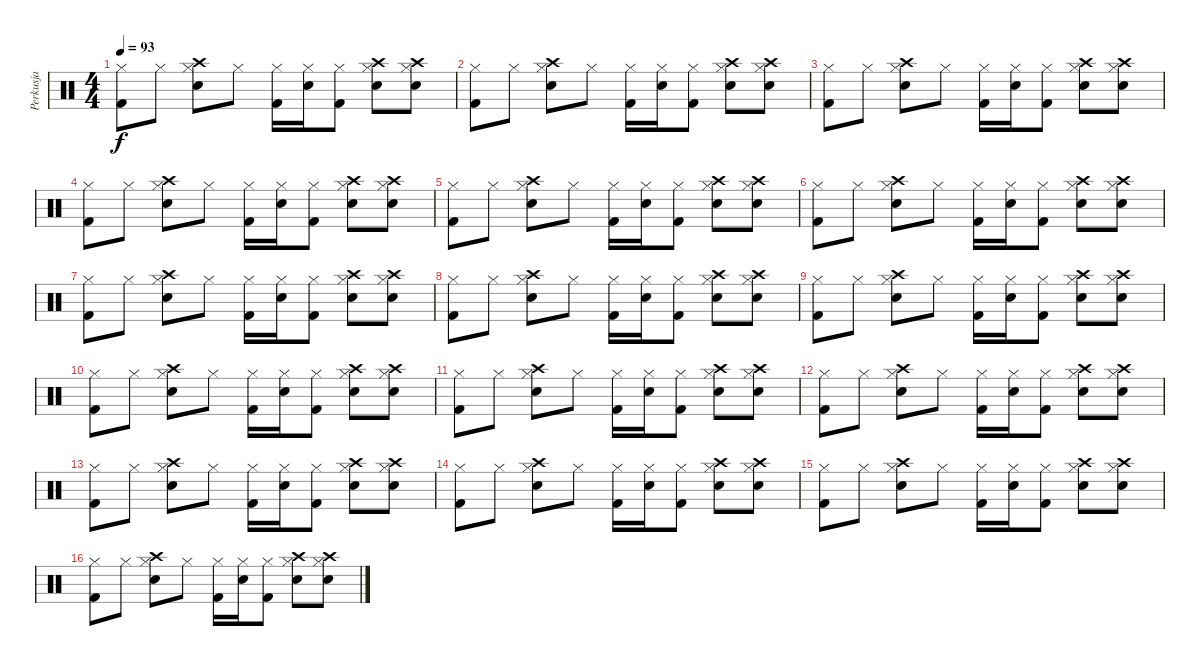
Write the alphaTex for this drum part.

\track ("Perkusja" "Perkusja") {instrument percussion}
\staff {score}
\articulation defaults
\ts (4 4)
\tempo 93
\clef neutral
\ks c
("Hi-Hat (closed)" "Kick (hit) 2").8{dy f} "Hi-Hat (closed)".8 ("Hi-Hat (closed)" "Electric Snare (hit)" "Crash high (hit)").8 "Hi-Hat (closed)".8 ("Hi-Hat (closed)" "Kick (hit) 2").16 ("Hi-Hat (closed)" "Electric Snare (hit)").16 ("Hi-Hat (closed)" "Kick (hit) 2").8 ("Hi-Hat (closed)" "Electric Snare (hit)" "Crash high (hit)").8 ("Hi-Hat (closed)" "Electric Snare (hit)" "Crash high (hit)").8 |
("Hi-Hat (closed)" "Kick (hit) 2").8 "Hi-Hat (closed)".8 ("Hi-Hat (closed)" "Electric Snare (hit)" "Crash high (hit)").8 "Hi-Hat (closed)".8 ("Hi-Hat (closed)" "Kick (hit) 2").16 ("Hi-Hat (closed)" "Electric Snare (hit)").16 ("Hi-Hat (closed)" "Kick (hit) 2").8 ("Hi-Hat (closed)" "Electric Snare (hit)" "Crash high (hit)").8 ("Hi-Hat (closed)" "Electric Snare (hit)" "Crash high (hit)").8 |
("Hi-Hat (closed)" "Kick (hit) 2").8 "Hi-Hat (closed)".8 ("Hi-Hat (closed)" "Electric Snare (hit)" "Crash high (hit)").8 "Hi-Hat (closed)".8 ("Hi-Hat (closed)" "Kick (hit) 2").16 ("Hi-Hat (closed)" "Electric Snare (hit)").16 ("Hi-Hat (closed)" "Kick (hit) 2").8 ("Hi-Hat (closed)" "Electric Snare (hit)" "Crash high (hit)").8 ("Hi-Hat (closed)" "Electric Snare (hit)" "Crash high (hit)").8 |
("Hi-Hat (closed)" "Kick (hit) 2").8 "Hi-Hat (closed)".8 ("Hi-Hat (closed)" "Electric Snare (hit)" "Crash high (hit)").8 "Hi-Hat (closed)".8 ("Hi-Hat (closed)" "Kick (hit) 2").16 ("Hi-Hat (closed)" "Electric Snare (hit)").16 ("Hi-Hat (closed)" "Kick (hit) 2").8 ("Hi-Hat (closed)" "Electric Snare (hit)" "Crash high (hit)").8 ("Hi-Hat (closed)" "Electric Snare (hit)" "Crash high (hit)").8 |
("Hi-Hat (closed)" "Kick (hit) 2").8 "Hi-Hat (closed)".8 ("Hi-Hat (closed)" "Electric Snare (hit)" "Crash high (hit)").8 "Hi-Hat (closed)".8 ("Hi-Hat (closed)" "Kick (hit) 2").16 ("Hi-Hat (closed)" "Electric Snare (hit)").16 ("Hi-Hat (closed)" "Kick (hit) 2").8 ("Hi-Hat (closed)" "Electric Snare (hit)" "Crash high (hit)").8 ("Hi-Hat (closed)" "Electric Snare (hit)" "Crash high (hit)").8 |
("Hi-Hat (closed)" "Kick (hit) 2").8 "Hi-Hat (closed)".8 ("Hi-Hat (closed)" "Electric Snare (hit)" "Crash high (hit)").8 "Hi-Hat (closed)".8 ("Hi-Hat (closed)" "Kick (hit) 2").16 ("Hi-Hat (closed)" "Electric Snare (hit)").16 ("Hi-Hat (closed)" "Kick (hit) 2").8 ("Hi-Hat (closed)" "Electric Snare (hit)" "Crash high (hit)").8 ("Hi-Hat (closed)" "Electric Snare (hit)" "Crash high (hit)").8 |
("Hi-Hat (closed)" "Kick (hit) 2").8 "Hi-Hat (closed)".8 ("Hi-Hat (closed)" "Electric Snare (hit)" "Crash high (hit)").8 "Hi-Hat (closed)".8 ("Hi-Hat (closed)" "Kick (hit) 2").16 ("Hi-Hat (closed)" "Electric Snare (hit)").16 ("Hi-Hat (closed)" "Kick (hit) 2").8 ("Hi-Hat (closed)" "Electric Snare (hit)" "Crash high (hit)").8 ("Hi-Hat (closed)" "Electric Snare (hit)" "Crash high (hit)").8 |
("Hi-Hat (closed)" "Kick (hit) 2").8 "Hi-Hat (closed)".8 ("Hi-Hat (closed)" "Electric Snare (hit)" "Crash high (hit)").8 "Hi-Hat (closed)".8 ("Hi-Hat (closed)" "Kick (hit) 2").16 ("Hi-Hat (closed)" "Electric Snare (hit)").16 ("Hi-Hat (closed)" "Kick (hit) 2").8 ("Hi-Hat (closed)" "Electric Snare (hit)" "Crash high (hit)").8 ("Hi-Hat (closed)" "Electric Snare (hit)" "Crash high (hit)").8 |
("Hi-Hat (closed)" "Kick (hit) 2").8 "Hi-Hat (closed)".8 ("Hi-Hat (closed)" "Electric Snare (hit)" "Crash high (hit)").8 "Hi-Hat (closed)".8 ("Hi-Hat (closed)" "Kick (hit) 2").16 ("Hi-Hat (closed)" "Electric Snare (hit)").16 ("Hi-Hat (closed)" "Kick (hit) 2").8 ("Hi-Hat (closed)" "Electric Snare (hit)" "Crash high (hit)").8 ("Hi-Hat (closed)" "Electric Snare (hit)" "Crash high (hit)").8 |
("Hi-Hat (closed)" "Kick (hit) 2").8 "Hi-Hat (closed)".8 ("Hi-Hat (closed)" "Electric Snare (hit)" "Crash high (hit)").8 "Hi-Hat (closed)".8 ("Hi-Hat (closed)" "Kick (hit) 2").16 ("Hi-Hat (closed)" "Electric Snare (hit)").16 ("Hi-Hat (closed)" "Kick (hit) 2").8 ("Hi-Hat (closed)" "Electric Snare (hit)" "Crash high (hit)").8 ("Hi-Hat (closed)" "Electric Snare (hit)" "Crash high (hit)").8 |
("Hi-Hat (closed)" "Kick (hit) 2").8 "Hi-Hat (closed)".8 ("Hi-Hat (closed)" "Electric Snare (hit)" "Crash high (hit)").8 "Hi-Hat (closed)".8 ("Hi-Hat (closed)" "Kick (hit) 2").16 ("Hi-Hat (closed)" "Electric Snare (hit)").16 ("Hi-Hat (closed)" "Kick (hit) 2").8 ("Hi-Hat (closed)" "Electric Snare (hit)" "Crash high (hit)").8 ("Hi-Hat (closed)" "Electric Snare (hit)" "Crash high (hit)").8 |
("Hi-Hat (closed)" "Kick (hit) 2").8 "Hi-Hat (closed)".8 ("Hi-Hat (closed)" "Electric Snare (hit)" "Crash high (hit)").8 "Hi-Hat (closed)".8 ("Hi-Hat (closed)" "Kick (hit) 2").16 ("Hi-Hat (closed)" "Electric Snare (hit)").16 ("Hi-Hat (closed)" "Kick (hit) 2").8 ("Hi-Hat (closed)" "Electric Snare (hit)" "Crash high (hit)").8 ("Hi-Hat (closed)" "Electric Snare (hit)" "Crash high (hit)").8 |
("Hi-Hat (closed)" "Kick (hit) 2").8 "Hi-Hat (closed)".8 ("Hi-Hat (closed)" "Electric Snare (hit)" "Crash high (hit)").8 "Hi-Hat (closed)".8 ("Hi-Hat (closed)" "Kick (hit) 2").16 ("Hi-Hat (closed)" "Electric Snare (hit)").16 ("Hi-Hat (closed)" "Kick (hit) 2").8 ("Hi-Hat (closed)" "Electric Snare (hit)" "Crash high (hit)").8 ("Hi-Hat (closed)" "Electric Snare (hit)" "Crash high (hit)").8 |
("Hi-Hat (closed)" "Kick (hit) 2").8 "Hi-Hat (closed)".8 ("Hi-Hat (closed)" "Electric Snare (hit)" "Crash high (hit)").8 "Hi-Hat (closed)".8 ("Hi-Hat (closed)" "Kick (hit) 2").16 ("Hi-Hat (closed)" "Electric Snare (hit)").16 ("Hi-Hat (closed)" "Kick (hit) 2").8 ("Hi-Hat (closed)" "Electric Snare (hit)" "Crash high (hit)").8 ("Hi-Hat (closed)" "Electric Snare (hit)" "Crash high (hit)").8 |
("Hi-Hat (closed)" "Kick (hit) 2").8 "Hi-Hat (closed)".8 ("Hi-Hat (closed)" "Electric Snare (hit)" "Crash high (hit)").8 "Hi-Hat (closed)".8 ("Hi-Hat (closed)" "Kick (hit) 2").16 ("Hi-Hat (closed)" "Electric Snare (hit)").16 ("Hi-Hat (closed)" "Kick (hit) 2").8 ("Hi-Hat (closed)" "Electric Snare (hit)" "Crash high (hit)").8 ("Hi-Hat (closed)" "Electric Snare (hit)" "Crash high (hit)").8 |
("Hi-Hat (closed)" "Kick (hit) 2").8 "Hi-Hat (closed)".8 ("Hi-Hat (closed)" "Electric Snare (hit)" "Crash high (hit)").8 "Hi-Hat (closed)".8 ("Hi-Hat (closed)" "Kick (hit) 2").16 ("Hi-Hat (closed)" "Electric Snare (hit)").16 ("Hi-Hat (closed)" "Kick (hit) 2").8 ("Hi-Hat (closed)" "Electric Snare (hit)" "Crash high (hit)").8 ("Hi-Hat (closed)" "Electric Snare (hit)" "Crash high (hit)").8
